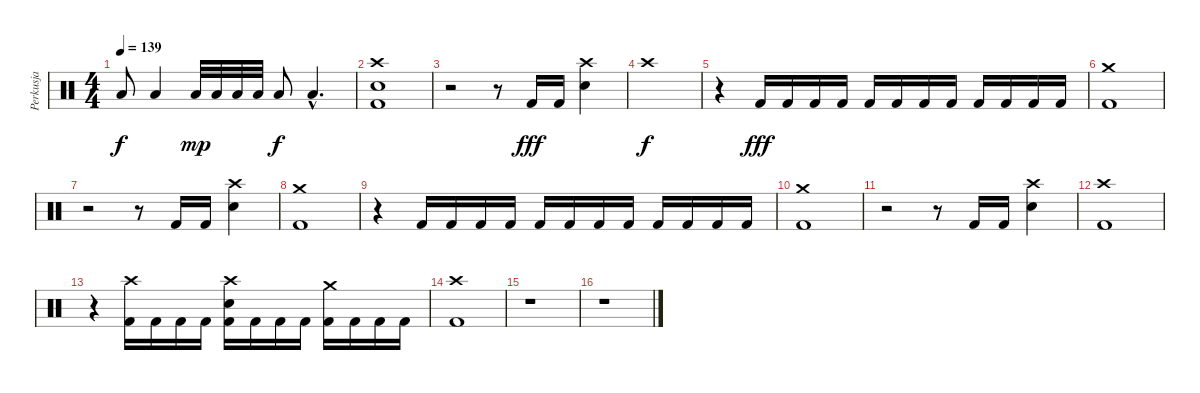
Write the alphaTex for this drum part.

\track ("Perkusja" "Perkusja") {instrument percussion}
\staff {score}
\articulation defaults
\ts (4 4)
\tempo 139
\clef neutral
\ks c "Low Floor Tom (hit)".8{dy f} "Low Floor Tom (hit)".4 "Low Floor Tom (hit)".32{dy mp} "Low Floor Tom (hit)".32 "Low Floor Tom (hit)".32 "Low Floor Tom (hit)".32 "Low Floor Tom (hit)".8{dy f} "Low Floor Tom (hit)"{hac}.4{d}
|
("Crash high (hit)" "Snare (hit) 2" "Kick (hit) 2").1 |
r.2 r.8 "Kick (hit) 2".16{dy fff} "Kick (hit) 2".16 ("Crash high (hit)" "Snare (hit) 2").4 |
"Crash high (hit)".1{dy f} |
r.4 "Kick (hit) 2".16{dy fff} "Kick (hit) 2".16 "Kick (hit) 2".16 "Kick (hit) 2".16 "Kick (hit) 2".16 "Kick (hit) 2".16 "Kick (hit) 2".16 "Kick (hit) 2".16 "Kick (hit) 2".16 "Kick (hit) 2".16 "Kick (hit) 2".16 "Kick (hit) 2".16 |
("Crash medium (hit)" "Kick (hit) 2").1 |
r.2 r.8 "Kick (hit) 2".16 "Kick (hit) 2".16 ("Crash high (hit)" "Snare (hit) 2").4 |
("Crash medium (hit)" "Kick (hit) 2").1 |
r.4 "Kick (hit) 2".16 "Kick (hit) 2".16 "Kick (hit) 2".16 "Kick (hit) 2".16 "Kick (hit) 2".16 "Kick (hit) 2".16 "Kick (hit) 2".16 "Kick (hit) 2".16 "Kick (hit) 2".16 "Kick (hit) 2".16 "Kick (hit) 2".16 "Kick (hit) 2".16 |
("Crash medium (hit)" "Kick (hit) 2").1 |
r.2 r.8 "Kick (hit) 2".16 "Kick (hit) 2".16 ("Crash high (hit)" "Snare (hit) 2").4 |
("Crash high (hit)" "Kick (hit) 2").1 |
r.4 ("Crash high (hit)" "Kick (hit) 2").16 "Kick (hit) 2".16 "Kick (hit) 2".16 "Kick (hit) 2".16 ("Crash high (hit)" "Snare (hit) 2" "Kick (hit) 2").16 "Kick (hit) 2".16 "Kick (hit) 2".16 "Kick (hit) 2".16 ("Crash medium (hit)" "Kick (hit) 2").16 "Kick (hit) 2".16 "Kick (hit) 2".16 "Kick (hit) 2".16 |
("Crash high (hit)" "Kick (hit) 2").1 |
r.1 |
r.1
